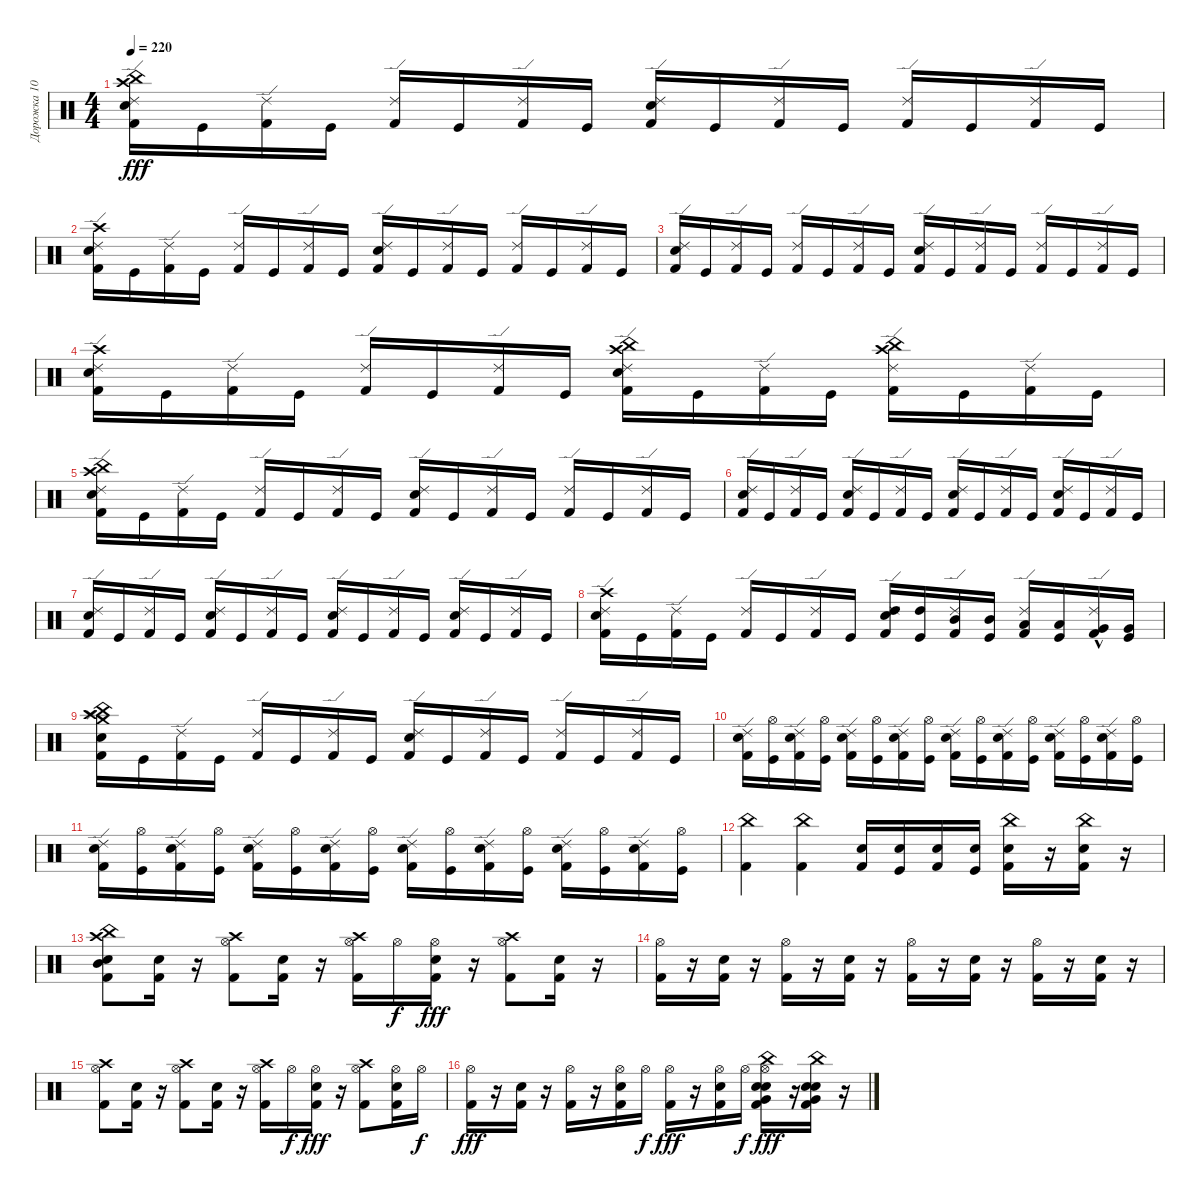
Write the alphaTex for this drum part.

\track ("Дорожка 10" "Дорожка 10") {instrument percussion}
\staff {score}
\articulation defaults
\ts (4 4)
\tempo 220
\clef neutral
\ks c
("Electric Snare (hit)" "China (hit)" "Kick (hit) 2" "Ride (edge) 2" "Crash high (hit)").16{dy fff} "Kick (hit)".16 ("Kick (hit) 2" "Ride (edge) 2").16 "Kick (hit)".16 ("Kick (hit) 2" "Ride (edge) 2").16 "Kick (hit)".16 ("Ride (edge) 2" "Kick (hit) 2").16 "Kick (hit)".16 ("Electric Snare (hit)" "Ride (edge) 2" "Kick (hit) 2").16 "Kick (hit)".16 ("Ride (edge) 2" "Kick (hit) 2").16 "Kick (hit)".16 ("Ride (edge) 2" "Kick (hit) 2").16 "Kick (hit)".16 ("Ride (edge) 2" "Kick (hit) 2").16 "Kick (hit)".16 |
("Ride (edge) 2" "Kick (hit) 2" "Crash high (hit)" "Electric Snare (hit)").16 "Kick (hit)".16 ("Ride (edge) 2" "Kick (hit) 2").16 "Kick (hit)".16 ("Kick (hit) 2" "Ride (edge) 2").16 "Kick (hit)".16 ("Ride (edge) 2" "Kick (hit) 2").16 "Kick (hit)".16 ("Electric Snare (hit)" "Ride (edge) 2" "Kick (hit) 2").16 "Kick (hit)".16 ("Ride (edge) 2" "Kick (hit) 2").16 "Kick (hit)".16 ("Kick (hit) 2" "Ride (edge) 2").16 "Kick (hit)".16 ("Kick (hit) 2" "Ride (edge) 2").16 "Kick (hit)".16 |
("Electric Snare (hit)" "Kick (hit) 2" "Ride (edge) 2").16 "Kick (hit)".16 ("Kick (hit) 2" "Ride (edge) 2").16 "Kick (hit)".16 ("Ride (edge) 2" "Kick (hit) 2").16 "Kick (hit)".16 ("Ride (edge) 2" "Kick (hit) 2").16 "Kick (hit)".16 ("Electric Snare (hit)" "Kick (hit) 2" "Ride (edge) 2").16 "Kick (hit)".16 ("Kick (hit) 2" "Ride (edge) 2").16 "Kick (hit)".16 ("Ride (edge) 2" "Kick (hit) 2").16 "Kick (hit)".16 ("Ride (edge) 2" "Kick (hit) 2").16 "Kick (hit)".16 |
("Electric Snare (hit)" "Ride (edge) 2" "Crash high (hit)" "Kick (hit) 2").16 "Kick (hit)".16 ("Ride (edge) 2" "Kick (hit) 2").16 "Kick (hit)".16 ("Kick (hit) 2" "Ride (edge) 2").16 "Kick (hit)".16 ("Kick (hit) 2" "Ride (edge) 2").16 "Kick (hit)".16 ("Electric Snare (hit)" "Ride (edge) 2" "Kick (hit) 2" "China (hit)" "Crash high (hit)").16 "Kick (hit)".16 ("Kick (hit) 2" "Ride (edge) 2").16 "Kick (hit)".16 ("Kick (hit) 2" "Ride (edge) 2" "China (hit)" "Crash high (hit)").16 "Kick (hit)".16 ("Ride (edge) 2" "Kick (hit) 2").16 "Kick (hit)".16 |
("Kick (hit) 2" "China (hit)" "Electric Snare (hit)" "Ride (edge) 2" "Crash high (hit)").16 "Kick (hit)".16 ("Kick (hit) 2" "Ride (edge) 2").16 "Kick (hit)".16 ("Ride (edge) 2" "Kick (hit) 2").16 "Kick (hit)".16 ("Ride (edge) 2" "Kick (hit) 2").16 "Kick (hit)".16 ("Ride (edge) 2" "Kick (hit) 2" "Electric Snare (hit)").16 "Kick (hit)".16 ("Ride (edge) 2" "Kick (hit) 2").16 "Kick (hit)".16 ("Ride (edge) 2" "Kick (hit) 2").16 "Kick (hit)".16 ("Ride (edge) 2" "Kick (hit) 2").16 "Kick (hit)".16 |
("Ride (edge) 2" "Kick (hit) 2" "Electric Snare (hit)").16 "Kick (hit)".16 ("Ride (edge) 2" "Kick (hit) 2").16 "Kick (hit)".16 ("Electric Snare (hit)" "Ride (edge) 2" "Kick (hit) 2").16 "Kick (hit)".16 ("Ride (edge) 2" "Kick (hit) 2").16 "Kick (hit)".16 ("Electric Snare (hit)" "Ride (edge) 2" "Kick (hit) 2").16 "Kick (hit)".16 ("Ride (edge) 2" "Kick (hit) 2").16 "Kick (hit)".16 ("Ride (edge) 2" "Kick (hit) 2" "Electric Snare (hit)").16 "Kick (hit)".16 ("Kick (hit) 2" "Ride (edge) 2").16 "Kick (hit)".16 |
("Electric Snare (hit)" "Kick (hit) 2" "Ride (edge) 2").16 "Kick (hit)".16 ("Ride (edge) 2" "Kick (hit) 2").16 "Kick (hit)".16 ("Kick (hit) 2" "Ride (edge) 2" "Electric Snare (hit)").16 "Kick (hit)".16 ("Kick (hit) 2" "Ride (edge) 2").16 "Kick (hit)".16 ("Kick (hit) 2" "Electric Snare (hit)" "Ride (edge) 2").16 "Kick (hit)".16 ("Kick (hit) 2" "Ride (edge) 2").16 "Kick (hit)".16 ("Electric Snare (hit)" "Kick (hit) 2" "Ride (edge) 2").16 "Kick (hit)".16 ("Ride (edge) 2" "Kick (hit) 2").16 "Kick (hit)".16 |
("Ride (edge) 2" "Kick (hit) 2" "Electric Snare (hit)" "Crash high (hit)").16 "Kick (hit)".16 ("Ride (edge) 2" "Kick (hit) 2").16 "Kick (hit)".16 ("Kick (hit) 2" "Ride (edge) 2").16 "Kick (hit)".16 ("Ride (edge) 2" "Kick (hit) 2").16 "Kick (hit)".16 ("High Tom (hit)" "Electric Snare (hit)" "Kick (hit) 2" "Ride (edge) 2").16 ("High Tom (hit)" "Kick (hit)").16 ("Mid Tom (hit)" "Kick (hit) 2" "Ride (edge) 2").16 ("Mid Tom (hit)" "Kick (hit)").16 ("Low Tom (hit)" "Ride (edge) 2" "Kick (hit) 2").16 ("Low Tom (hit)" "Kick (hit)").16 ("Very Low Tom (hit)" "Kick (hit) 2" "Ride (edge) 2"{hac}).16 ("Very Low Tom (hit)" "Kick (hit)").16 |
("Crash medium (hit)" "Splash (hit)" "China (hit)" "Crash high (hit)" "Kick (hit) 2" "Electric Snare (hit)").16 "Kick (hit)".16 ("Kick (hit) 2" "Ride (edge) 2").16 "Kick (hit)".16 ("Kick (hit) 2" "Ride (edge) 2").16 "Kick (hit)".16 ("Ride (edge) 2" "Kick (hit) 2").16 "Kick (hit)".16 ("Ride (edge) 2" "Kick (hit) 2" "Electric Snare (hit)").16 "Kick (hit)".16 ("Kick (hit) 2" "Ride (edge) 2").16 "Kick (hit)".16 ("Ride (edge) 2" "Kick (hit) 2").16 "Kick (hit)".16 ("Ride (edge) 2" "Kick (hit) 2").16 "Kick (hit)".16 |
("Snare (hit) 2" "Ride (edge) 2" "Kick (hit) 2").16 ("Kick (hit)" "Hi-Hat (open)").16 ("Ride (edge) 2" "Snare (hit) 2" "Kick (hit) 2").16 ("Kick (hit)" "Hi-Hat (open)").16 ("Ride (edge) 2" "Kick (hit) 2" "Snare (hit) 2").16 ("Hi-Hat (open)" "Kick (hit)").16 ("Ride (edge) 2" "Kick (hit) 2" "Snare (hit) 2").16 ("Hi-Hat (open)" "Kick (hit)").16 ("Ride (edge) 2" "Snare (hit) 2" "Kick (hit) 2").16 ("Kick (hit)" "Hi-Hat (open)").16 ("Snare (hit) 2" "Kick (hit) 2" "Ride (edge) 2").16 ("Hi-Hat (open)" "Kick (hit)").16 ("Snare (hit) 2" "Ride (edge) 2" "Kick (hit) 2").16 ("Hi-Hat (open)" "Kick (hit)").16 ("Ride (edge) 2" "Kick (hit) 2" "Snare (hit) 2").16 ("Hi-Hat (open)" "Kick (hit)").16 |
("Snare (hit) 2" "Kick (hit) 2" "Ride (edge) 2").16 ("Kick (hit)" "Hi-Hat (open)").16 ("Snare (hit) 2" "Ride (edge) 2" "Kick (hit) 2").16 ("Hi-Hat (open)" "Kick (hit)").16 ("Snare (hit) 2" "Ride (edge) 2" "Kick (hit) 2").16 ("Hi-Hat (open)" "Kick (hit)").16 ("Kick (hit) 2" "Ride (edge) 2" "Snare (hit) 2").16 ("Kick (hit)" "Hi-Hat (open)").16 ("Kick (hit) 2" "Ride (edge) 2" "Snare (hit) 2").16 ("Kick (hit)" "Hi-Hat (open)").16 ("Snare (hit) 2" "Kick (hit) 2" "Ride (edge) 2").16 ("Hi-Hat (open)" "Kick (hit)").16 ("Ride (edge) 2" "Snare (hit) 2" "Kick (hit) 2").16 ("Kick (hit)" "Hi-Hat (open)").16 ("Ride (edge) 2" "Snare (hit) 2" "Kick (hit) 2").16 ("Kick (hit)" "Hi-Hat (open)").16 |
("China (hit)" "Kick (hit) 2").4 ("China (hit)" "Kick (hit) 2").4 ("Kick (hit) 2" "Electric Snare (hit)").16 ("Electric Snare (hit)" "Kick (hit)").16 ("Kick (hit) 2" "Electric Snare (hit)").16 ("Electric Snare (hit)" "Kick (hit)").16 ("Snare (hit) 2" "Kick (hit) 2" "China (hit)").16 r.16 ("Kick (hit) 2" "Snare (hit) 2" "China (hit)").16 r.16 |
("Crash high (hit)" "China (hit)" "Kick (hit) 2" "Snare (hit) 2" "Mid Tom (hit)").8 ("Kick (hit) 2" "Electric Snare (hit)").16 r.16 ("Crash high (hit)" "Hi-Hat (open)" "Kick (hit) 2").8 ("Snare (hit) 2" "Kick (hit) 2").16 r.16 ("Crash high (hit)" "Hi-Hat (open)" "Kick (hit) 2").16 "Hi-Hat (open)".16{dy f} ("Kick (hit) 2" "Hi-Hat (open)" "Snare (hit) 2").16{dy fff} r.16 ("Crash high (hit)" "Hi-Hat (open)" "Kick (hit) 2").8 ("Snare (hit) 2" "Kick (hit) 2").16 r.16 |
("Hi-Hat (open)" "Kick (hit) 2").16 r.16 ("Kick (hit) 2" "Snare (hit) 2").16 r.16 ("Kick (hit) 2" "Hi-Hat (open)").16 r.16 ("Kick (hit) 2" "Snare (hit) 2").16 r.16 ("Kick (hit) 2" "Hi-Hat (open)").16 r.16 ("Kick (hit) 2" "Snare (hit) 2").16 r.16 ("Hi-Hat (open)" "Kick (hit) 2").16 r.16 ("Snare (hit) 2" "Kick (hit) 2").16 r.16 |
("Kick (hit) 2" "Hi-Hat (open)" "Crash high (hit)").8 ("Snare (hit) 2" "Kick (hit) 2").16 r.16 ("Kick (hit) 2" "Hi-Hat (open)" "Crash high (hit)").8 ("Snare (hit) 2" "Kick (hit) 2").16 r.16 ("Crash high (hit)" "Kick (hit) 2" "Hi-Hat (open)").16 "Hi-Hat (open)".16{dy f} ("Snare (hit) 2" "Hi-Hat (open)" "Kick (hit) 2").16{dy fff} r.16 ("Crash high (hit)" "Hi-Hat (open)" "Kick (hit) 2").8 ("Kick (hit) 2" "Hi-Hat (open)" "Snare (hit) 2").16 "Hi-Hat (open)".16{dy f} |
("Hi-Hat (open)" "Kick (hit) 2").16{dy fff} r.16 ("Kick (hit) 2" "Snare (hit) 2").16 r.16 ("Kick (hit) 2" "Hi-Hat (open)").16 r.16 ("Snare (hit) 2" "Kick (hit) 2" "Hi-Hat (open)").16 "Hi-Hat (open)".16{dy f} ("Kick (hit) 2" "Hi-Hat (open)").16{dy fff} r.16 ("Snare (hit) 2" "Kick (hit) 2" "Hi-Hat (open)").16 "Hi-Hat (open)".16{dy f} ("Snare (hit) 2" "Electric Snare (hit)" "Hi-Hat (open)" "China (hit)" "Kick (hit) 2" "Very Low Tom (hit)").16{dy fff} r.16 ("Kick (hit) 2" "Snare (hit) 2" "Electric Snare (hit)" "China (hit)" "Very Low Tom (hit)").16 r.16
